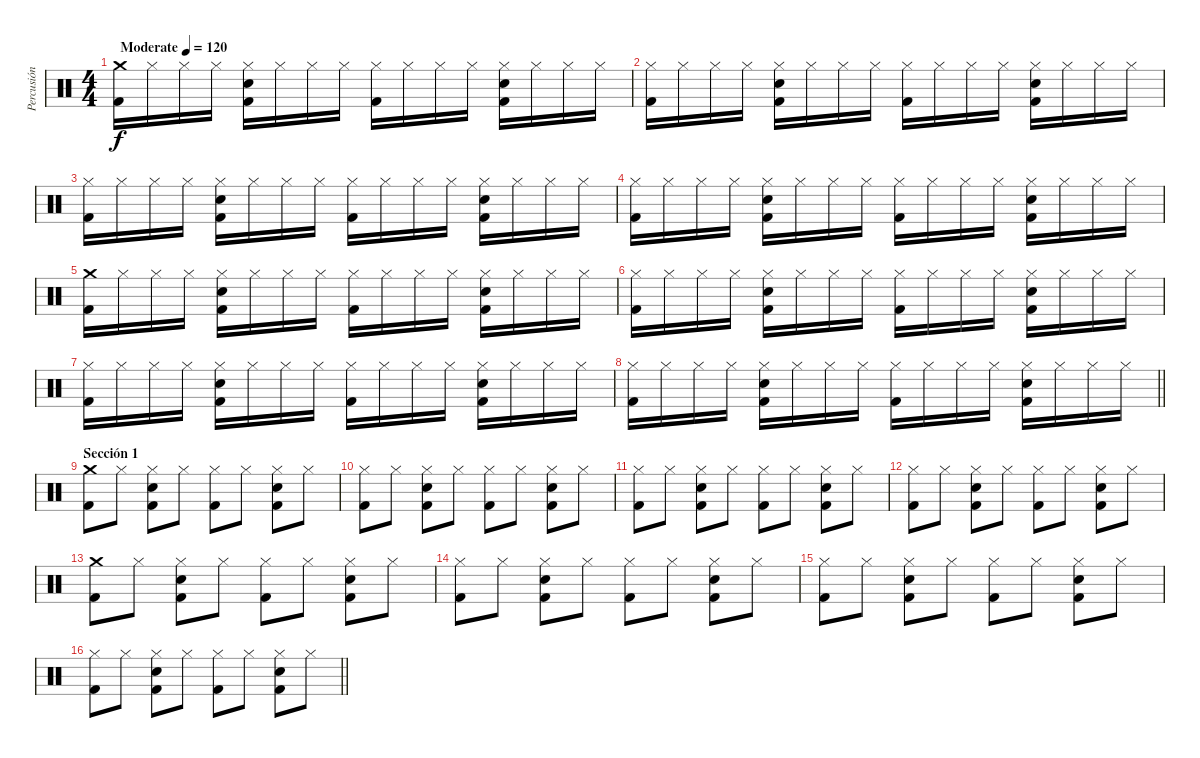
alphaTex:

\track ("Percusión" "Percusión") {instrument percussion}
\staff {score}
\articulation defaults
\ts (4 4)
\tempo (120 "Moderate")
\clef neutral
\ks c
("Kick (hit) 2" "Crash medium (hit)").16{dy f} "Hi-Hat (closed)".16 "Hi-Hat (closed)".16 "Hi-Hat (closed)".16 ("Kick (hit) 2" "Hi-Hat (closed)" "Electric Snare (hit)").16 "Hi-Hat (closed)".16 "Hi-Hat (closed)".16 "Hi-Hat (closed)".16 ("Kick (hit) 2" "Hi-Hat (closed)").16 "Hi-Hat (closed)".16 "Hi-Hat (closed)".16 "Hi-Hat (closed)".16 ("Kick (hit) 2" "Hi-Hat (closed)" "Electric Snare (hit)").16 "Hi-Hat (closed)".16 "Hi-Hat (closed)".16 "Hi-Hat (closed)".16 |
("Kick (hit) 2" "Hi-Hat (closed)").16 "Hi-Hat (closed)".16 "Hi-Hat (closed)".16 "Hi-Hat (closed)".16 ("Kick (hit) 2" "Hi-Hat (closed)" "Electric Snare (hit)").16 "Hi-Hat (closed)".16 "Hi-Hat (closed)".16 "Hi-Hat (closed)".16 ("Kick (hit) 2" "Hi-Hat (closed)").16 "Hi-Hat (closed)".16 "Hi-Hat (closed)".16 "Hi-Hat (closed)".16 ("Kick (hit) 2" "Hi-Hat (closed)" "Electric Snare (hit)").16 "Hi-Hat (closed)".16 "Hi-Hat (closed)".16 "Hi-Hat (closed)".16 |
("Kick (hit) 2" "Hi-Hat (closed)").16 "Hi-Hat (closed)".16 "Hi-Hat (closed)".16 "Hi-Hat (closed)".16 ("Kick (hit) 2" "Hi-Hat (closed)" "Electric Snare (hit)").16 "Hi-Hat (closed)".16 "Hi-Hat (closed)".16 "Hi-Hat (closed)".16 ("Kick (hit) 2" "Hi-Hat (closed)").16 "Hi-Hat (closed)".16 "Hi-Hat (closed)".16 "Hi-Hat (closed)".16 ("Kick (hit) 2" "Hi-Hat (closed)" "Electric Snare (hit)").16 "Hi-Hat (closed)".16 "Hi-Hat (closed)".16 "Hi-Hat (closed)".16 |
("Kick (hit) 2" "Hi-Hat (closed)").16 "Hi-Hat (closed)".16 "Hi-Hat (closed)".16 "Hi-Hat (closed)".16 ("Kick (hit) 2" "Hi-Hat (closed)" "Electric Snare (hit)").16 "Hi-Hat (closed)".16 "Hi-Hat (closed)".16 "Hi-Hat (closed)".16 ("Kick (hit) 2" "Hi-Hat (closed)").16 "Hi-Hat (closed)".16 "Hi-Hat (closed)".16 "Hi-Hat (closed)".16 ("Kick (hit) 2" "Hi-Hat (closed)" "Electric Snare (hit)").16 "Hi-Hat (closed)".16 "Hi-Hat (closed)".16 "Hi-Hat (closed)".16 |
("Kick (hit) 2" "Crash medium (hit)").16 "Hi-Hat (closed)".16 "Hi-Hat (closed)".16 "Hi-Hat (closed)".16 ("Kick (hit) 2" "Hi-Hat (closed)" "Electric Snare (hit)").16 "Hi-Hat (closed)".16 "Hi-Hat (closed)".16 "Hi-Hat (closed)".16 ("Kick (hit) 2" "Hi-Hat (closed)").16 "Hi-Hat (closed)".16 "Hi-Hat (closed)".16 "Hi-Hat (closed)".16 ("Kick (hit) 2" "Hi-Hat (closed)" "Electric Snare (hit)").16 "Hi-Hat (closed)".16 "Hi-Hat (closed)".16 "Hi-Hat (closed)".16 |
("Kick (hit) 2" "Hi-Hat (closed)").16 "Hi-Hat (closed)".16 "Hi-Hat (closed)".16 "Hi-Hat (closed)".16 ("Kick (hit) 2" "Hi-Hat (closed)" "Electric Snare (hit)").16 "Hi-Hat (closed)".16 "Hi-Hat (closed)".16 "Hi-Hat (closed)".16 ("Kick (hit) 2" "Hi-Hat (closed)").16 "Hi-Hat (closed)".16 "Hi-Hat (closed)".16 "Hi-Hat (closed)".16 ("Kick (hit) 2" "Hi-Hat (closed)" "Electric Snare (hit)").16 "Hi-Hat (closed)".16 "Hi-Hat (closed)".16 "Hi-Hat (closed)".16 |
("Kick (hit) 2" "Hi-Hat (closed)").16 "Hi-Hat (closed)".16 "Hi-Hat (closed)".16 "Hi-Hat (closed)".16 ("Kick (hit) 2" "Hi-Hat (closed)" "Electric Snare (hit)").16 "Hi-Hat (closed)".16 "Hi-Hat (closed)".16 "Hi-Hat (closed)".16 ("Kick (hit) 2" "Hi-Hat (closed)").16 "Hi-Hat (closed)".16 "Hi-Hat (closed)".16 "Hi-Hat (closed)".16 ("Kick (hit) 2" "Hi-Hat (closed)" "Electric Snare (hit)").16 "Hi-Hat (closed)".16 "Hi-Hat (closed)".16 "Hi-Hat (closed)".16 |
\barLineRight lightlight
("Kick (hit) 2" "Hi-Hat (closed)").16 "Hi-Hat (closed)".16 "Hi-Hat (closed)".16 "Hi-Hat (closed)".16 ("Kick (hit) 2" "Hi-Hat (closed)" "Electric Snare (hit)").16 "Hi-Hat (closed)".16 "Hi-Hat (closed)".16 "Hi-Hat (closed)".16 ("Kick (hit) 2" "Hi-Hat (closed)").16 "Hi-Hat (closed)".16 "Hi-Hat (closed)".16 "Hi-Hat (closed)".16 ("Kick (hit) 2" "Hi-Hat (closed)" "Electric Snare (hit)").16 "Hi-Hat (closed)".16 "Hi-Hat (closed)".16 "Hi-Hat (closed)".16 |
\section ("" "Sección 1")
("Kick (hit) 2" "Crash medium (hit)").8 "Hi-Hat (closed)".8 ("Kick (hit) 2" "Hi-Hat (closed)" "Electric Snare (hit)").8 "Hi-Hat (closed)".8 ("Kick (hit) 2" "Hi-Hat (closed)").8 "Hi-Hat (closed)".8 ("Kick (hit) 2" "Hi-Hat (closed)" "Electric Snare (hit)").8 "Hi-Hat (closed)".8 |
("Kick (hit) 2" "Hi-Hat (closed)").8 "Hi-Hat (closed)".8 ("Kick (hit) 2" "Hi-Hat (closed)" "Electric Snare (hit)").8 "Hi-Hat (closed)".8 ("Kick (hit) 2" "Hi-Hat (closed)").8 "Hi-Hat (closed)".8 ("Kick (hit) 2" "Hi-Hat (closed)" "Electric Snare (hit)").8 "Hi-Hat (closed)".8 |
("Kick (hit) 2" "Hi-Hat (closed)").8 "Hi-Hat (closed)".8 ("Kick (hit) 2" "Hi-Hat (closed)" "Electric Snare (hit)").8 "Hi-Hat (closed)".8 ("Kick (hit) 2" "Hi-Hat (closed)").8 "Hi-Hat (closed)".8 ("Kick (hit) 2" "Hi-Hat (closed)" "Electric Snare (hit)").8 "Hi-Hat (closed)".8 |
("Kick (hit) 2" "Hi-Hat (closed)").8 "Hi-Hat (closed)".8 ("Kick (hit) 2" "Hi-Hat (closed)" "Electric Snare (hit)").8 "Hi-Hat (closed)".8 ("Kick (hit) 2" "Hi-Hat (closed)").8 "Hi-Hat (closed)".8 ("Kick (hit) 2" "Hi-Hat (closed)" "Electric Snare (hit)").8 "Hi-Hat (closed)".8 |
("Kick (hit) 2" "Crash medium (hit)").8 "Hi-Hat (closed)".8 ("Kick (hit) 2" "Hi-Hat (closed)" "Electric Snare (hit)").8 "Hi-Hat (closed)".8 ("Kick (hit) 2" "Hi-Hat (closed)").8 "Hi-Hat (closed)".8 ("Kick (hit) 2" "Hi-Hat (closed)" "Electric Snare (hit)").8 "Hi-Hat (closed)".8 |
("Kick (hit) 2" "Hi-Hat (closed)").8 "Hi-Hat (closed)".8 ("Kick (hit) 2" "Hi-Hat (closed)" "Electric Snare (hit)").8 "Hi-Hat (closed)".8 ("Kick (hit) 2" "Hi-Hat (closed)").8 "Hi-Hat (closed)".8 ("Kick (hit) 2" "Hi-Hat (closed)" "Electric Snare (hit)").8 "Hi-Hat (closed)".8 |
("Kick (hit) 2" "Hi-Hat (closed)").8 "Hi-Hat (closed)".8 ("Kick (hit) 2" "Hi-Hat (closed)" "Electric Snare (hit)").8 "Hi-Hat (closed)".8 ("Kick (hit) 2" "Hi-Hat (closed)").8 "Hi-Hat (closed)".8 ("Kick (hit) 2" "Hi-Hat (closed)" "Electric Snare (hit)").8 "Hi-Hat (closed)".8 |
\barLineRight lightlight
("Kick (hit) 2" "Hi-Hat (closed)").8 "Hi-Hat (closed)".8 ("Kick (hit) 2" "Hi-Hat (closed)" "Electric Snare (hit)").8 "Hi-Hat (closed)".8 ("Kick (hit) 2" "Hi-Hat (closed)").8 "Hi-Hat (closed)".8 ("Kick (hit) 2" "Hi-Hat (closed)" "Electric Snare (hit)").8 "Hi-Hat (closed)".8
